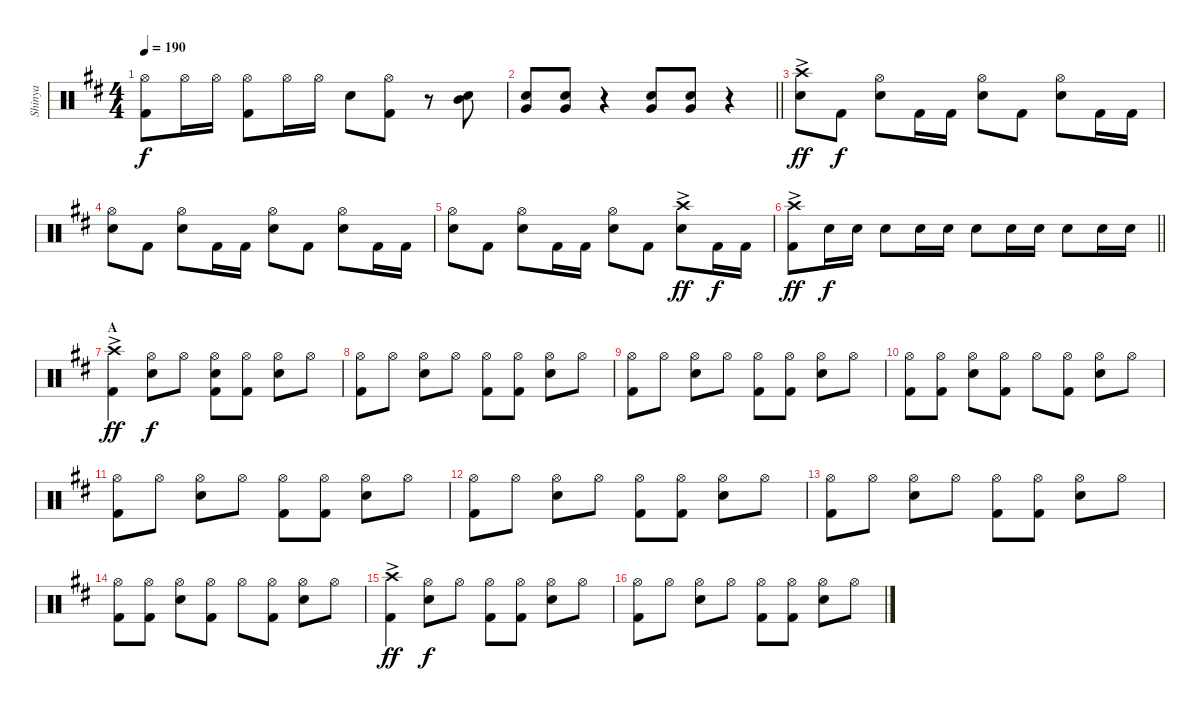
\track ("Shinya" "Shinya") {instrument percussion}
\staff {score}
\articulation defaults
\ts (4 4)
\tempo 190
\clef neutral
\ks d
("Hi-Hat (open)" "Kick (hit) 2").8{dy f} "Hi-Hat (open)".16 "Hi-Hat (open)".16 ("Hi-Hat (open)" "Kick (hit) 2").8 "Hi-Hat (open)".16 "Hi-Hat (open)".16 "Snare (hit) 2".8 ("Hi-Hat (open)" "Kick (hit) 2").8 r.8 ("Mid Tom (hit)" "Snare (hit) 2").8 |
\barLineRight lightlight
("Snare (hit) 2" "Very Low Tom (hit)").8 ("Snare (hit) 2" "Very Low Tom (hit)").8 r.4 ("Snare (hit) 2" "Very Low Tom (hit)").8 ("Snare (hit) 2" "Very Low Tom (hit)").8 r.4 |
("Crash high (hit)"{ac} "Snare (hit) 2").8{dy ff} "Kick (hit) 2".8{dy f} ("Hi-Hat (open)" "Snare (hit) 2").8 "Kick (hit) 2".16 "Kick (hit) 2".16 ("Hi-Hat (open)" "Snare (hit) 2").8 "Kick (hit) 2".8 ("Hi-Hat (open)" "Snare (hit) 2").8 "Kick (hit) 2".16 "Kick (hit) 2".16 |
("Hi-Hat (open)" "Snare (hit) 2").8 "Kick (hit) 2".8 ("Hi-Hat (open)" "Snare (hit) 2").8 "Kick (hit) 2".16 "Kick (hit) 2".16 ("Hi-Hat (open)" "Snare (hit) 2").8 "Kick (hit) 2".8 ("Hi-Hat (open)" "Snare (hit) 2").8 "Kick (hit) 2".16 "Kick (hit) 2".16 |
("Hi-Hat (open)" "Snare (hit) 2").8 "Kick (hit) 2".8 ("Hi-Hat (open)" "Snare (hit) 2").8 "Kick (hit) 2".16 "Kick (hit) 2".16 ("Hi-Hat (open)" "Snare (hit) 2").8 "Kick (hit) 2".8 ("Crash high (hit)"{ac} "Snare (hit) 2").8{dy ff} "Kick (hit) 2".16{dy f} "Kick (hit) 2".16 |
\barLineRight lightlight
("Crash high (hit)"{ac} "Kick (hit) 2").8{dy ff} "Snare (hit) 2".16{dy f} "Snare (hit) 2".16 "Snare (hit) 2".8 "Snare (hit) 2".16 "Snare (hit) 2".16 "Snare (hit) 2".8 "Snare (hit) 2".16 "Snare (hit) 2".16 "Snare (hit) 2".8 "Snare (hit) 2".16 "Snare (hit) 2".16 |
\section ("" "A")
("Crash high (hit)"{ac} "Kick (hit) 2").4{dy ff} ("Hi-Hat (open)" "Snare (hit) 2").8{dy f} "Hi-Hat (open)".8 ("Hi-Hat (open)" "Snare (hit) 2" "Kick (hit) 2").8 ("Hi-Hat (open)" "Kick (hit) 2").8 ("Hi-Hat (open)" "Snare (hit) 2").8 "Hi-Hat (open)".8 |
("Hi-Hat (open)" "Kick (hit) 2").8 "Hi-Hat (open)".8 ("Hi-Hat (open)" "Snare (hit) 2").8 "Hi-Hat (open)".8 ("Hi-Hat (open)" "Kick (hit) 2").8 ("Hi-Hat (open)" "Kick (hit) 2").8 ("Hi-Hat (open)" "Snare (hit) 2").8 "Hi-Hat (open)".8 |
("Hi-Hat (open)" "Kick (hit) 2").8 "Hi-Hat (open)".8 ("Hi-Hat (open)" "Snare (hit) 2").8 "Hi-Hat (open)".8 ("Hi-Hat (open)" "Kick (hit) 2").8 ("Hi-Hat (open)" "Kick (hit) 2").8 ("Hi-Hat (open)" "Snare (hit) 2").8 "Hi-Hat (open)".8 |
("Hi-Hat (open)" "Kick (hit) 2").8 ("Hi-Hat (open)" "Kick (hit) 2").8 ("Hi-Hat (open)" "Snare (hit) 2").8 ("Hi-Hat (open)" "Kick (hit) 2").8 "Hi-Hat (open)".8 ("Hi-Hat (open)" "Kick (hit) 2").8 ("Hi-Hat (open)" "Snare (hit) 2").8 "Hi-Hat (open)".8 |
("Hi-Hat (open)" "Kick (hit) 2").8 "Hi-Hat (open)".8 ("Hi-Hat (open)" "Snare (hit) 2").8 "Hi-Hat (open)".8 ("Hi-Hat (open)" "Kick (hit) 2").8 ("Hi-Hat (open)" "Kick (hit) 2").8 ("Hi-Hat (open)" "Snare (hit) 2").8 "Hi-Hat (open)".8 |
("Hi-Hat (open)" "Kick (hit) 2").8 "Hi-Hat (open)".8 ("Hi-Hat (open)" "Snare (hit) 2").8 "Hi-Hat (open)".8 ("Hi-Hat (open)" "Kick (hit) 2").8 ("Hi-Hat (open)" "Kick (hit) 2").8 ("Hi-Hat (open)" "Snare (hit) 2").8 "Hi-Hat (open)".8 |
("Hi-Hat (open)" "Kick (hit) 2").8 "Hi-Hat (open)".8 ("Hi-Hat (open)" "Snare (hit) 2").8 "Hi-Hat (open)".8 ("Hi-Hat (open)" "Kick (hit) 2").8 ("Hi-Hat (open)" "Kick (hit) 2").8 ("Hi-Hat (open)" "Snare (hit) 2").8 "Hi-Hat (open)".8 |
("Hi-Hat (open)" "Kick (hit) 2").8 ("Hi-Hat (open)" "Kick (hit) 2").8 ("Hi-Hat (open)" "Snare (hit) 2").8 ("Hi-Hat (open)" "Kick (hit) 2").8 "Hi-Hat (open)".8 ("Hi-Hat (open)" "Kick (hit) 2").8 ("Hi-Hat (open)" "Snare (hit) 2").8 "Hi-Hat (open)".8 |
("Crash high (hit)"{ac} "Kick (hit) 2").4{dy ff} ("Hi-Hat (open)" "Snare (hit) 2").8{dy f} "Hi-Hat (open)".8 ("Hi-Hat (open)" "Kick (hit) 2").8 ("Hi-Hat (open)" "Kick (hit) 2").8 ("Hi-Hat (open)" "Snare (hit) 2").8 "Hi-Hat (open)".8 |
("Hi-Hat (open)" "Kick (hit) 2").8 "Hi-Hat (open)".8 ("Hi-Hat (open)" "Snare (hit) 2").8 "Hi-Hat (open)".8 ("Hi-Hat (open)" "Kick (hit) 2").8 ("Hi-Hat (open)" "Kick (hit) 2").8 ("Hi-Hat (open)" "Snare (hit) 2").8 "Hi-Hat (open)".8
